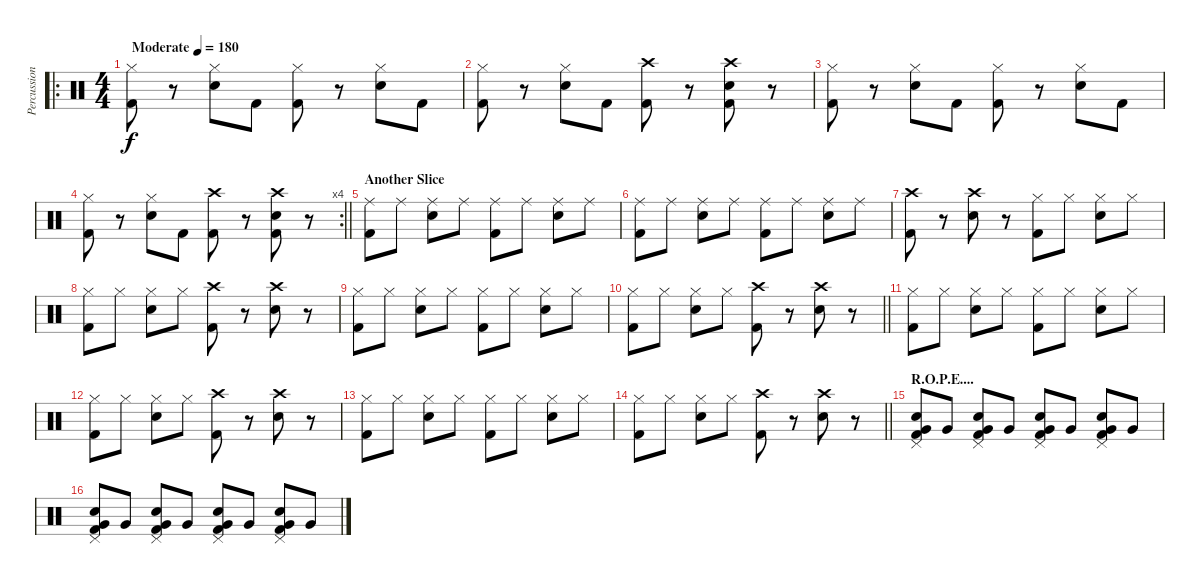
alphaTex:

\track ("Percussion" "Percussion") {instrument percussion}
\staff {score}
\articulation defaults
\ro
\ts (4 4)
\tempo (180 "Moderate")
\clef neutral
\ks c
("Hi-Hat (closed)" "Kick (hit) 2").8{dy f} r.8 ("Hi-Hat (closed)" "Electric Snare (hit)").8 "Kick (hit) 2".8 ("Hi-Hat (closed)" "Kick (hit) 2").8 r.8 ("Hi-Hat (closed)" "Electric Snare (hit)").8 "Kick (hit) 2".8 |
("Hi-Hat (closed)" "Kick (hit) 2").8 r.8 ("Hi-Hat (closed)" "Electric Snare (hit)").8 "Kick (hit) 2".8 ("Crash high (hit)" "Kick (hit) 2").8 r.8 ("Crash high (hit)" "Electric Snare (hit)" "Kick (hit) 2").8 r.8 |
("Hi-Hat (closed)" "Kick (hit) 2").8 r.8 ("Hi-Hat (closed)" "Electric Snare (hit)").8 "Kick (hit) 2".8 ("Hi-Hat (closed)" "Kick (hit) 2").8 r.8 ("Hi-Hat (closed)" "Electric Snare (hit)").8 "Kick (hit) 2".8 |
\rc 4
\barLineRight lightlight
("Hi-Hat (closed)" "Kick (hit) 2").8 r.8 ("Hi-Hat (closed)" "Electric Snare (hit)").8 "Kick (hit) 2".8 ("Crash high (hit)" "Kick (hit) 2").8 r.8 ("Crash high (hit)" "Electric Snare (hit)" "Kick (hit) 2").8 r.8 |
\section ("" "Another Slice")
("Ride (middle)" "Kick (hit) 2").8 "Ride (middle)".8 ("Ride (middle)" "Electric Snare (hit)").8 "Ride (middle)".8 ("Ride (middle)" "Kick (hit) 2").8 "Ride (middle)".8 ("Ride (middle)" "Electric Snare (hit)").8 "Ride (middle)".8 |
("Ride (middle)" "Kick (hit) 2").8 "Ride (middle)".8 ("Ride (middle)" "Electric Snare (hit)").8 "Ride (middle)".8 ("Ride (middle)" "Kick (hit) 2").8 "Ride (middle)".8 ("Ride (middle)" "Electric Snare (hit)").8 "Ride (middle)".8 |
("Crash high (hit)" "Kick (hit) 2").8 r.8 ("Crash high (hit)" "Electric Snare (hit)").8 r.8 ("Hi-Hat (closed)" "Kick (hit) 2").8 "Hi-Hat (closed)".8 ("Hi-Hat (closed)" "Electric Snare (hit)").8 "Hi-Hat (closed)".8 |
("Hi-Hat (closed)" "Kick (hit) 2").8 "Hi-Hat (closed)".8 ("Hi-Hat (closed)" "Electric Snare (hit)").8 "Hi-Hat (closed)".8 ("Crash high (hit)" "Kick (hit) 2").8 r.8 ("Crash high (hit)" "Electric Snare (hit)").8 r.8 |
("Hi-Hat (closed)" "Kick (hit) 2").8 "Hi-Hat (closed)".8 ("Hi-Hat (closed)" "Electric Snare (hit)").8 "Hi-Hat (closed)".8 ("Hi-Hat (closed)" "Kick (hit) 2").8 "Hi-Hat (closed)".8 ("Hi-Hat (closed)" "Electric Snare (hit)").8 "Hi-Hat (closed)".8 |
\barLineRight lightlight
("Hi-Hat (closed)" "Kick (hit) 2").8 "Hi-Hat (closed)".8 ("Hi-Hat (closed)" "Electric Snare (hit)").8 "Hi-Hat (closed)".8 ("Crash high (hit)" "Kick (hit) 2").8 r.8 ("Crash high (hit)" "Electric Snare (hit)").8 r.8 |
("Hi-Hat (closed)" "Kick (hit) 2").8 "Hi-Hat (closed)".8 ("Hi-Hat (closed)" "Electric Snare (hit)").8 "Hi-Hat (closed)".8 ("Hi-Hat (closed)" "Kick (hit) 2").8 "Hi-Hat (closed)".8 ("Hi-Hat (closed)" "Electric Snare (hit)").8 "Hi-Hat (closed)".8 |
("Hi-Hat (closed)" "Kick (hit) 2").8 "Hi-Hat (closed)".8 ("Hi-Hat (closed)" "Electric Snare (hit)").8 "Hi-Hat (closed)".8 ("Crash high (hit)" "Kick (hit) 2").8 r.8 ("Crash high (hit)" "Electric Snare (hit)").8 r.8 |
("Hi-Hat (closed)" "Kick (hit) 2").8 "Hi-Hat (closed)".8 ("Hi-Hat (closed)" "Electric Snare (hit)").8 "Hi-Hat (closed)".8 ("Hi-Hat (closed)" "Kick (hit) 2").8 "Hi-Hat (closed)".8 ("Hi-Hat (closed)" "Electric Snare (hit)").8 "Hi-Hat (closed)".8 |
\barLineRight lightlight
("Hi-Hat (closed)" "Kick (hit) 2").8 "Hi-Hat (closed)".8 ("Hi-Hat (closed)" "Electric Snare (hit)").8 "Hi-Hat (closed)".8 ("Crash high (hit)" "Kick (hit) 2").8 r.8 ("Crash high (hit)" "Electric Snare (hit)").8 r.8 |
\section ("" "R.O.P.E....")
("Pedal Hi-Hat (hit)" "Very Low Tom (hit)" "Electric Snare (hit)" "Kick (hit) 2").8 "Very Low Tom (hit)".8 ("Pedal Hi-Hat (hit)" "Very Low Tom (hit)" "Electric Snare (hit)" "Kick (hit) 2").8 "Very Low Tom (hit)".8 ("Pedal Hi-Hat (hit)" "Very Low Tom (hit)" "Electric Snare (hit)" "Kick (hit) 2").8 "Very Low Tom (hit)".8 ("Pedal Hi-Hat (hit)" "Very Low Tom (hit)" "Electric Snare (hit)" "Kick (hit) 2").8 "Very Low Tom (hit)".8 |
("Pedal Hi-Hat (hit)" "Very Low Tom (hit)" "Electric Snare (hit)" "Kick (hit) 2").8 "Very Low Tom (hit)".8 ("Pedal Hi-Hat (hit)" "Very Low Tom (hit)" "Electric Snare (hit)" "Kick (hit) 2").8 "Very Low Tom (hit)".8 ("Pedal Hi-Hat (hit)" "Very Low Tom (hit)" "Electric Snare (hit)" "Kick (hit) 2").8 "Very Low Tom (hit)".8 ("Pedal Hi-Hat (hit)" "Very Low Tom (hit)" "Electric Snare (hit)" "Kick (hit) 2").8 "Very Low Tom (hit)".8
